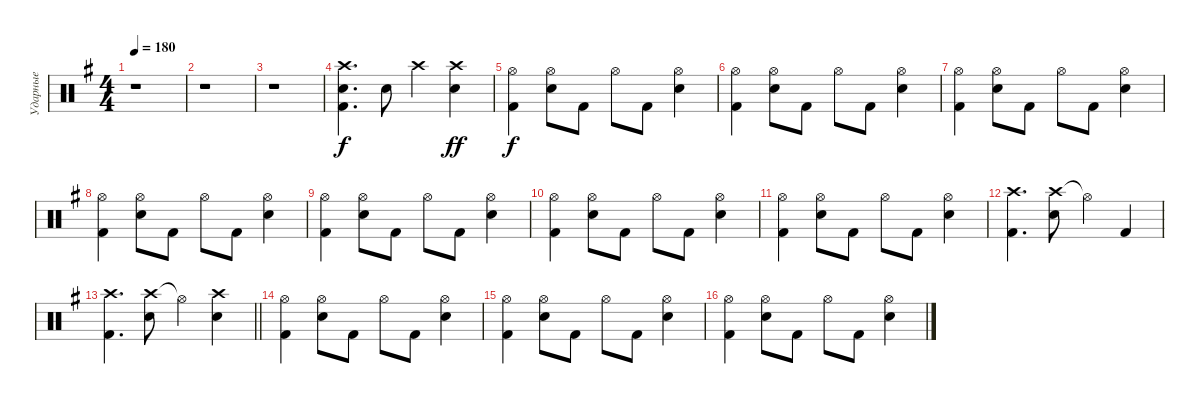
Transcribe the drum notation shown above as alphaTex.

\track ("Ударные" "Ударные") {instrument percussion}
\staff {score}
\articulation defaults
\ts (4 4)
\tempo 180
\clef neutral
\ks g
r.1{dy f} |
r.1 |
r.1 |
("Crash high (hit)" "Snare (hit) 2" "Kick (hit) 2").4{d} "Snare (hit) 2".8 "Crash high (hit)".4 ("Crash high (hit)" "Snare (hit) 2").4{dy ff} |
("Hi-Hat (open)" "Kick (hit) 2").4{dy f} ("Hi-Hat (open)" "Snare (hit) 2").8 "Kick (hit) 2".8 "Hi-Hat (open)".8 "Kick (hit) 2".8 ("Hi-Hat (open)" "Snare (hit) 2").4 |
("Hi-Hat (open)" "Kick (hit) 2").4 ("Hi-Hat (open)" "Snare (hit) 2").8 "Kick (hit) 2".8 "Hi-Hat (open)".8 "Kick (hit) 2".8 ("Hi-Hat (open)" "Snare (hit) 2").4 |
("Hi-Hat (open)" "Kick (hit) 2").4 ("Hi-Hat (open)" "Snare (hit) 2").8 "Kick (hit) 2".8 "Hi-Hat (open)".8 "Kick (hit) 2".8 ("Hi-Hat (open)" "Snare (hit) 2").4 |
("Hi-Hat (open)" "Kick (hit) 2").4 ("Hi-Hat (open)" "Snare (hit) 2").8 "Kick (hit) 2".8 "Hi-Hat (open)".8 "Kick (hit) 2".8 ("Hi-Hat (open)" "Snare (hit) 2").4 |
("Hi-Hat (open)" "Kick (hit) 2").4 ("Hi-Hat (open)" "Snare (hit) 2").8 "Kick (hit) 2".8 "Hi-Hat (open)".8 "Kick (hit) 2".8 ("Hi-Hat (open)" "Snare (hit) 2").4 |
("Hi-Hat (open)" "Kick (hit) 2").4 ("Hi-Hat (open)" "Snare (hit) 2").8 "Kick (hit) 2".8 "Hi-Hat (open)".8 "Kick (hit) 2".8 ("Hi-Hat (open)" "Snare (hit) 2").4 |
("Hi-Hat (open)" "Kick (hit) 2").4 ("Hi-Hat (open)" "Snare (hit) 2").8 "Kick (hit) 2".8 "Hi-Hat (open)".8 "Kick (hit) 2".8 ("Hi-Hat (open)" "Snare (hit) 2").4 |
("Crash high (hit)" "Kick (hit) 2").4{d} ("Crash high (hit)" "Snare (hit) 2").8 "Hi-Hat (open)"{t}.4 "Kick (hit) 2".4 |
\barLineRight lightlight
("Crash high (hit)" "Kick (hit) 2").4{d} ("Crash high (hit)" "Snare (hit) 2").8 "Hi-Hat (open)"{t}.4 ("Crash high (hit)" "Snare (hit) 2").4 |
("Hi-Hat (open)" "Kick (hit) 2").4 ("Hi-Hat (open)" "Snare (hit) 2").8 "Kick (hit) 2".8 "Hi-Hat (open)".8 "Kick (hit) 2".8 ("Hi-Hat (open)" "Snare (hit) 2").4 |
("Hi-Hat (open)" "Kick (hit) 2").4 ("Hi-Hat (open)" "Snare (hit) 2").8 "Kick (hit) 2".8 "Hi-Hat (open)".8 "Kick (hit) 2".8 ("Hi-Hat (open)" "Snare (hit) 2").4 |
("Hi-Hat (open)" "Kick (hit) 2").4 ("Hi-Hat (open)" "Snare (hit) 2").8 "Kick (hit) 2".8 "Hi-Hat (open)".8 "Kick (hit) 2".8 ("Hi-Hat (open)" "Snare (hit) 2").4
